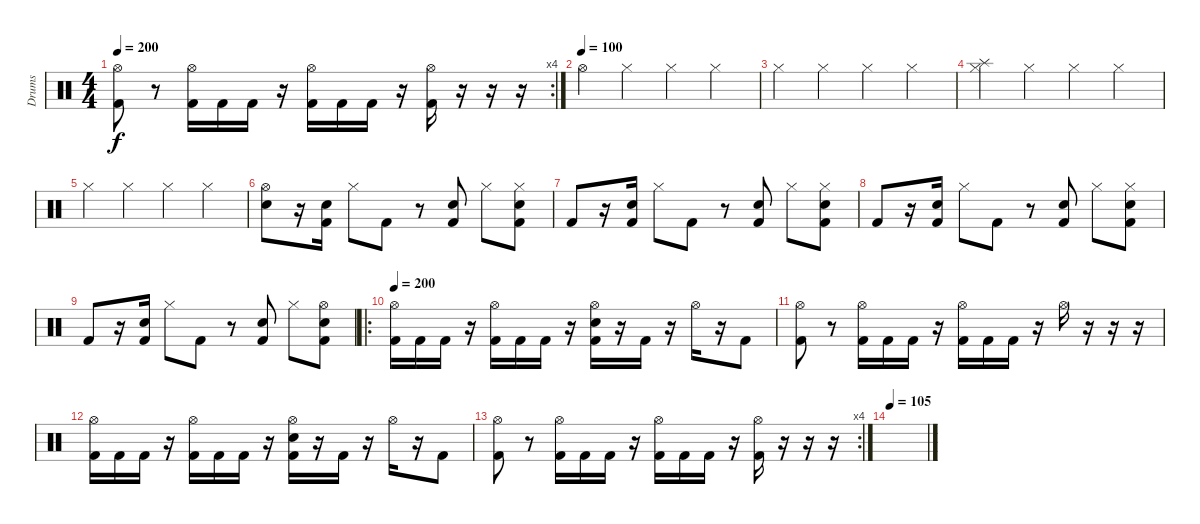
\track ("Drums" "Drums") {instrument percussion}
\staff {score}
\articulation defaults
\rc 4
\ts (4 4)
\tempo 200
\clef neutral
\ks c
("Hi-Hat (open)" "Kick (hit) 2").8{dy f} r.8 ("Hi-Hat (open)" "Kick (hit) 2").16 "Kick (hit) 2".16 "Kick (hit) 2".16 r.16 ("Hi-Hat (open)" "Kick (hit) 2").16 "Kick (hit) 2".16 "Kick (hit) 2".16 r.16 ("Hi-Hat (open)" "Kick (hit) 2").16 r.16 r.16 r.16 |
\tempo (100)
"Hi-Hat (open)".4 "Hi-Hat (closed)".4 "Hi-Hat (closed)".4 "Hi-Hat (closed)".4 |
"Hi-Hat (closed)".4 "Hi-Hat (closed)".4 "Hi-Hat (closed)".4 "Hi-Hat (closed)".4 |
("Splash (hit)" "Hi-Hat (closed)").4 "Hi-Hat (closed)".4 "Hi-Hat (closed)".4 "Hi-Hat (closed)".4 |
"Hi-Hat (closed)".4 "Hi-Hat (closed)".4 "Hi-Hat (closed)".4 "Hi-Hat (closed)".4 |
("Hi-Hat (open)" "Electric Snare (hit)").8 r.16 ("Electric Snare (hit)" "Kick (hit) 2").16 "Hi-Hat (closed)".8 "Kick (hit) 2".8 r.8 ("Electric Snare (hit)" "Kick (hit) 2").8 "Hi-Hat (closed)".8 ("Hi-Hat (closed)" "Electric Snare (hit)" "Kick (hit) 2").8 |
"Kick (hit) 2".8 r.16 ("Electric Snare (hit)" "Kick (hit) 2").16 "Hi-Hat (closed)".8 "Kick (hit) 2".8 r.8 ("Electric Snare (hit)" "Kick (hit) 2").8 "Hi-Hat (closed)".8 ("Hi-Hat (closed)" "Electric Snare (hit)" "Kick (hit) 2").8 |
"Kick (hit) 2".8 r.16 ("Electric Snare (hit)" "Kick (hit) 2").16 "Hi-Hat (closed)".8 "Kick (hit) 2".8 r.8 ("Electric Snare (hit)" "Kick (hit) 2").8 "Hi-Hat (closed)".8 ("Hi-Hat (closed)" "Electric Snare (hit)" "Kick (hit) 2").8 |
"Kick (hit) 2".8 r.16 ("Electric Snare (hit)" "Kick (hit) 2").16 "Hi-Hat (closed)".8 "Kick (hit) 2".8 r.8 ("Electric Snare (hit)" "Kick (hit) 2").8 "Hi-Hat (closed)".8 ("Hi-Hat (open)" "Electric Snare (hit)" "Kick (hit) 2").8 |
\ro
\tempo 200
("Hi-Hat (open)" "Kick (hit) 2").16 "Kick (hit) 2".16 "Kick (hit) 2".16 r.16 ("Hi-Hat (open)" "Kick (hit) 2").16 "Kick (hit) 2".16 "Kick (hit) 2".16 r.16 ("Hi-Hat (open)" "Electric Snare (hit)" "Kick (hit) 2").16 r.16 "Kick (hit) 2".16 r.16 "Hi-Hat (open)".16 r.16 "Kick (hit) 2".8 |
("Hi-Hat (open)" "Kick (hit) 2").8 r.8 ("Hi-Hat (open)" "Kick (hit) 2").16 "Kick (hit) 2".16 "Kick (hit) 2".16 r.16 ("Hi-Hat (open)" "Kick (hit) 2").16 "Kick (hit) 2".16 "Kick (hit) 2".16 r.16 "Hi-Hat (open)".16 r.16 r.16 r.16 |
("Hi-Hat (open)" "Kick (hit) 2").16 "Kick (hit) 2".16 "Kick (hit) 2".16 r.16 ("Hi-Hat (open)" "Kick (hit) 2").16 "Kick (hit) 2".16 "Kick (hit) 2".16 r.16 ("Hi-Hat (open)" "Electric Snare (hit)" "Kick (hit) 2").16 r.16 "Kick (hit) 2".16 r.16 "Hi-Hat (open)".16 r.16 "Kick (hit) 2".8 |
\rc 4
("Hi-Hat (open)" "Kick (hit) 2").8 r.8 ("Hi-Hat (open)" "Kick (hit) 2").16 "Kick (hit) 2".16 "Kick (hit) 2".16 r.16 ("Hi-Hat (open)" "Kick (hit) 2").16 "Kick (hit) 2".16 "Kick (hit) 2".16 r.16 ("Hi-Hat (open)" "Kick (hit) 2").16 r.16 r.16 r.16 |
\tempo 105
